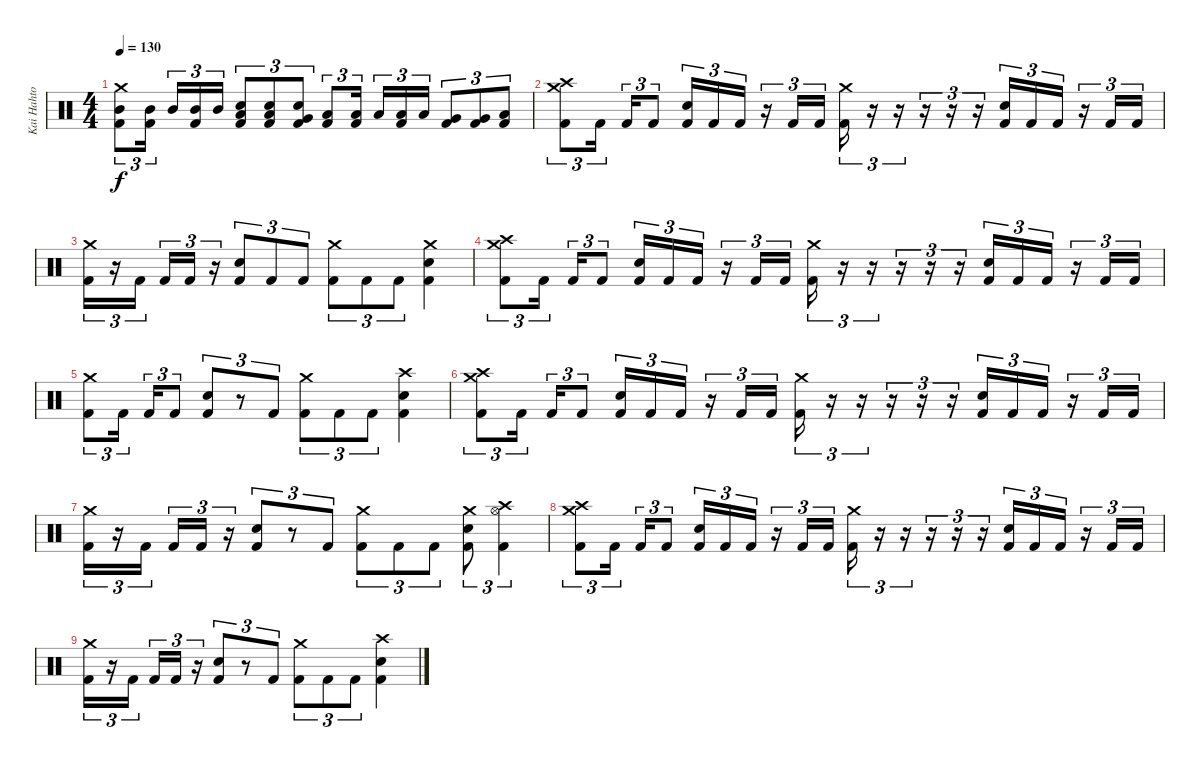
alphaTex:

\track ("Kai Hahto" "Kai Hahto") {instrument percussion}
\staff {score}
\articulation defaults
\ts (4 4)
\tempo 130
\clef neutral
\ks c
("Crash medium (hit)" "Mid Tom (hit)" "Kick (hit) 2").8{tu (3 2) dy f} ("Mid Tom (hit)" "Kick (hit) 2").16{tu (3 2) beam splitsecondary} "Mid Tom (hit)".16{tu (3 2)} ("Mid Tom (hit)" "Kick (hit) 2").16{tu (3 2)} "Mid Tom (hit)".16{tu (3 2)} ("Low Tom (hit)" "Snare (hit) 2" "Kick (hit) 2").8{tu (3 2)} ("Low Tom (hit)" "Snare (hit) 2" "Kick (hit) 2").8{tu (3 2)} ("Very Low Tom (hit)" "Snare (hit) 2" "Kick (hit) 2").8{tu (3 2)} ("Low Tom (hit)" "Kick (hit) 2").8{tu (3 2)} ("Low Tom (hit)" "Kick (hit) 2").16{tu (3 2) beam splitsecondary} "Low Tom (hit)".16{tu (3 2)} ("Low Tom (hit)" "Kick (hit) 2").16{tu (3 2)} "Low Tom (hit)".16{tu (3 2)} ("Very Low Tom (hit)" "Kick (hit) 2").8{tu (3 2)} ("Very Low Tom (hit)" "Kick (hit) 2").8{tu (3 2)} ("Low Floor Tom (hit)" "Kick (hit) 2").8{tu (3 2)} |
("Crash medium (hit)" "Crash high (hit)" "Kick (hit) 2").8{tu (3 2)} "Kick (hit) 2".16{tu (3 2) beam splitsecondary} "Kick (hit) 2".16{tu (3 2)} "Kick (hit) 2".8{tu (3 2)} ("Snare (hit) 2" "Kick (hit) 2").16{tu (3 2)} "Kick (hit) 2".16{tu (3 2)} "Kick (hit) 2".16{tu (3 2)} r.16{tu (3 2)} "Kick (hit) 2".16{tu (3 2)} "Kick (hit) 2".16{tu (3 2)} ("Crash medium (hit)" "Kick (hit) 2").16{tu (3 2)} r.16{tu (3 2)} r.16{tu (3 2)} r.16{tu (3 2)} r.16{tu (3 2)} r.16{tu (3 2)} ("Snare (hit) 2" "Kick (hit) 2").16{tu (3 2)} "Kick (hit) 2".16{tu (3 2)} "Kick (hit) 2".16{tu (3 2)} r.16{tu (3 2)} "Kick (hit) 2".16{tu (3 2)} "Kick (hit) 2".16{tu (3 2)} |
("Crash medium (hit)" "Kick (hit) 2").16{tu (3 2)} r.16{tu (3 2)} "Kick (hit) 2".16{tu (3 2) beam splitsecondary} "Kick (hit) 2".16{tu (3 2)} "Kick (hit) 2".16{tu (3 2)} r.16{tu (3 2)} ("Snare (hit) 2" "Kick (hit) 2").8{tu (3 2)} "Kick (hit) 2".8{tu (3 2)} "Kick (hit) 2".8{tu (3 2)} ("Crash medium (hit)" "Kick (hit) 2").8{tu (3 2)} "Kick (hit) 2".8{tu (3 2)} "Kick (hit) 2".8{tu (3 2)} ("Crash medium (hit)" "Snare (hit) 2" "Kick (hit) 2").4 |
("Crash medium (hit)" "Crash high (hit)" "Kick (hit) 2").8{tu (3 2)} "Kick (hit) 2".16{tu (3 2) beam splitsecondary} "Kick (hit) 2".16{tu (3 2)} "Kick (hit) 2".8{tu (3 2)} ("Snare (hit) 2" "Kick (hit) 2").16{tu (3 2)} "Kick (hit) 2".16{tu (3 2)} "Kick (hit) 2".16{tu (3 2)} r.16{tu (3 2)} "Kick (hit) 2".16{tu (3 2)} "Kick (hit) 2".16{tu (3 2)} ("Crash medium (hit)" "Kick (hit) 2").16{tu (3 2)} r.16{tu (3 2)} r.16{tu (3 2)} r.16{tu (3 2)} r.16{tu (3 2)} r.16{tu (3 2)} ("Snare (hit) 2" "Kick (hit) 2").16{tu (3 2)} "Kick (hit) 2".16{tu (3 2)} "Kick (hit) 2".16{tu (3 2)} r.16{tu (3 2)} "Kick (hit) 2".16{tu (3 2)} "Kick (hit) 2".16{tu (3 2)} |
("Crash medium (hit)" "Kick (hit) 2").8{tu (3 2)} "Kick (hit) 2".16{tu (3 2) beam splitsecondary} "Kick (hit) 2".16{tu (3 2)} "Kick (hit) 2".8{tu (3 2)} ("Snare (hit) 2" "Kick (hit) 2").8{tu (3 2)} r.8{tu (3 2)} "Kick (hit) 2".8{tu (3 2)} ("Crash medium (hit)" "Kick (hit) 2").8{tu (3 2)} "Kick (hit) 2".8{tu (3 2)} "Kick (hit) 2".8{tu (3 2)} ("Crash high (hit)" "Snare (hit) 2" "Kick (hit) 2").4 |
("Crash medium (hit)" "Crash high (hit)" "Kick (hit) 2").8{tu (3 2)} "Kick (hit) 2".16{tu (3 2) beam splitsecondary} "Kick (hit) 2".16{tu (3 2)} "Kick (hit) 2".8{tu (3 2)} ("Snare (hit) 2" "Kick (hit) 2").16{tu (3 2)} "Kick (hit) 2".16{tu (3 2)} "Kick (hit) 2".16{tu (3 2)} r.16{tu (3 2)} "Kick (hit) 2".16{tu (3 2)} "Kick (hit) 2".16{tu (3 2)} ("Crash medium (hit)" "Kick (hit) 2").16{tu (3 2)} r.16{tu (3 2)} r.16{tu (3 2)} r.16{tu (3 2)} r.16{tu (3 2)} r.16{tu (3 2)} ("Snare (hit) 2" "Kick (hit) 2").16{tu (3 2)} "Kick (hit) 2".16{tu (3 2)} "Kick (hit) 2".16{tu (3 2)} r.16{tu (3 2)} "Kick (hit) 2".16{tu (3 2)} "Kick (hit) 2".16{tu (3 2)} |
("Crash medium (hit)" "Kick (hit) 2").16{tu (3 2)} r.16{tu (3 2)} "Kick (hit) 2".16{tu (3 2) beam splitsecondary} "Kick (hit) 2".16{tu (3 2)} "Kick (hit) 2".16{tu (3 2)} r.16{tu (3 2)} ("Snare (hit) 2" "Kick (hit) 2").8{tu (3 2)} r.8{tu (3 2)} "Kick (hit) 2".8{tu (3 2)} ("Crash medium (hit)" "Kick (hit) 2").8{tu (3 2)} "Kick (hit) 2".8{tu (3 2)} "Kick (hit) 2".8{tu (3 2)} ("Crash medium (hit)" "Snare (hit) 2" "Kick (hit) 2").8{tu (3 2)} ("Crash high (hit)" "Hi-Hat (open)" "Kick (hit) 2").4{tu (3 2)} |
("Crash medium (hit)" "Crash high (hit)" "Kick (hit) 2").8{tu (3 2)} "Kick (hit) 2".16{tu (3 2) beam splitsecondary} "Kick (hit) 2".16{tu (3 2)} "Kick (hit) 2".8{tu (3 2)} ("Snare (hit) 2" "Kick (hit) 2").16{tu (3 2)} "Kick (hit) 2".16{tu (3 2)} "Kick (hit) 2".16{tu (3 2)} r.16{tu (3 2)} "Kick (hit) 2".16{tu (3 2)} "Kick (hit) 2".16{tu (3 2)} ("Crash medium (hit)" "Kick (hit) 2").16{tu (3 2)} r.16{tu (3 2)} r.16{tu (3 2)} r.16{tu (3 2)} r.16{tu (3 2)} r.16{tu (3 2)} ("Snare (hit) 2" "Kick (hit) 2").16{tu (3 2)} "Kick (hit) 2".16{tu (3 2)} "Kick (hit) 2".16{tu (3 2)} r.16{tu (3 2)} "Kick (hit) 2".16{tu (3 2)} "Kick (hit) 2".16{tu (3 2)} |
("Crash medium (hit)" "Kick (hit) 2").16{tu (3 2)} r.16{tu (3 2)} "Kick (hit) 2".16{tu (3 2) beam splitsecondary} "Kick (hit) 2".16{tu (3 2)} "Kick (hit) 2".16{tu (3 2)} r.16{tu (3 2)} ("Snare (hit) 2" "Kick (hit) 2").8{tu (3 2)} r.8{tu (3 2)} "Kick (hit) 2".8{tu (3 2)} ("Crash medium (hit)" "Kick (hit) 2").8{tu (3 2)} "Kick (hit) 2".8{tu (3 2)} "Kick (hit) 2".8{tu (3 2)} ("Crash high (hit)" "Snare (hit) 2" "Kick (hit) 2").4
